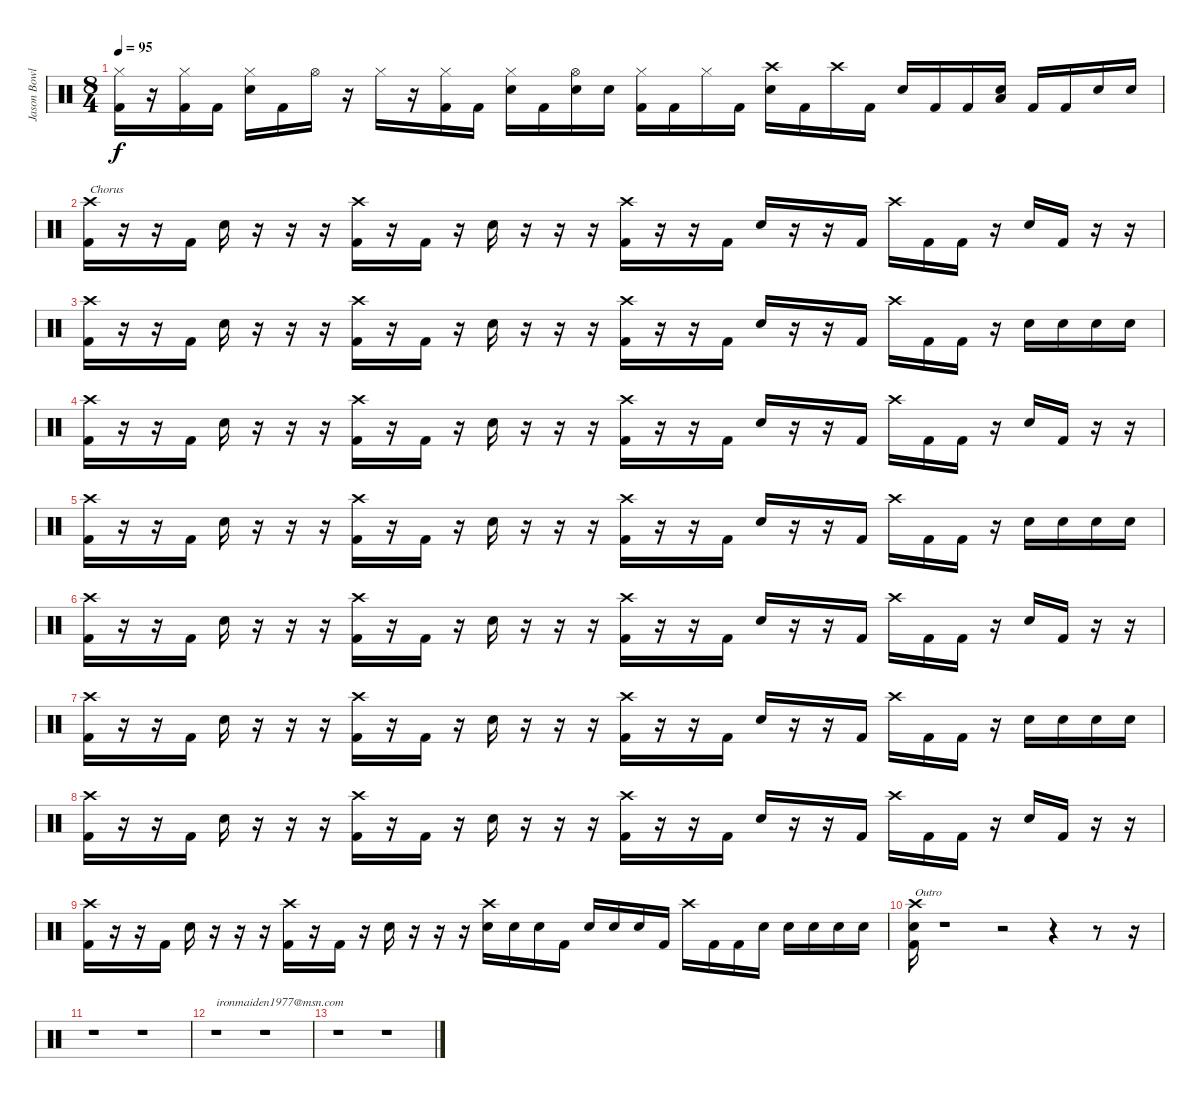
\track ("Jason Bowld" "Jason Bowl") {instrument percussion}
\staff {score}
\articulation defaults
\ts (8 4)
\tempo 95
\clef neutral
\ks c
("Hi-Hat (closed)" "Kick (hit) 2").16{dy f} r.16 ("Hi-Hat (closed)" "Kick (hit) 2").16 "Kick (hit) 2".16 ("Hi-Hat (closed)" "Snare (hit) 2").16 "Kick (hit) 2".16 "Hi-Hat (open)".16 r.16 "Hi-Hat (closed)".16 r.16 ("Hi-Hat (closed)" "Kick (hit) 2").16 "Kick (hit) 2".16 ("Hi-Hat (closed)" "Snare (hit) 2").16 "Kick (hit) 2".16 ("Hi-Hat (open)" "Snare (hit) 2").16 "Snare (hit) 2".16 ("Hi-Hat (closed)" "Kick (hit) 2").16 "Kick (hit) 2".16 "Hi-Hat (closed)".16 "Kick (hit) 2".16 ("Crash high (hit)" "Snare (hit) 2").16 "Kick (hit) 2".16 "Crash high (hit)".16 "Kick (hit) 2".16 "Snare (hit) 2".16 "Kick (hit) 2".16 "Kick (hit) 2".16 ("Low Tom (hit)" "Snare (hit) 2").16 "Kick (hit) 2".16 "Kick (hit) 2".16 "Snare (hit) 2".16 "Snare (hit) 2".16 |
("Kick (hit) 2" "Crash high (hit)").16{txt "Chorus"} r.16 r.16 "Kick (hit) 2".16 "Snare (hit) 2".16 r.16 r.16 r.16 ("Kick (hit) 2" "Crash high (hit)").16 r.16 "Kick (hit) 2".16 r.16 "Snare (hit) 2".16 r.16 r.16 r.16 ("Kick (hit) 2" "Crash high (hit)").16 r.16 r.16 "Kick (hit) 2".16 "Snare (hit) 2".16 r.16 r.16 "Kick (hit) 2".16 "Crash high (hit)".16 "Kick (hit) 2".16 "Kick (hit) 2".16 r.16 "Snare (hit) 2".16 "Kick (hit) 2".16 r.16 r.16 |
("Kick (hit) 2" "Crash high (hit)").16 r.16 r.16 "Kick (hit) 2".16 "Snare (hit) 2".16 r.16 r.16 r.16 ("Kick (hit) 2" "Crash high (hit)").16 r.16 "Kick (hit) 2".16 r.16 "Snare (hit) 2".16 r.16 r.16 r.16 ("Kick (hit) 2" "Crash high (hit)").16 r.16 r.16 "Kick (hit) 2".16 "Snare (hit) 2".16 r.16 r.16 "Kick (hit) 2".16 "Crash high (hit)".16 "Kick (hit) 2".16 "Kick (hit) 2".16 r.16 "Snare (hit) 2".16 "Snare (hit) 2".16 "Snare (hit) 2".16 "Snare (hit) 2".16 |
("Kick (hit) 2" "Crash high (hit)").16 r.16 r.16 "Kick (hit) 2".16 "Snare (hit) 2".16 r.16 r.16 r.16 ("Kick (hit) 2" "Crash high (hit)").16 r.16 "Kick (hit) 2".16 r.16 "Snare (hit) 2".16 r.16 r.16 r.16 ("Kick (hit) 2" "Crash high (hit)").16 r.16 r.16 "Kick (hit) 2".16 "Snare (hit) 2".16 r.16 r.16 "Kick (hit) 2".16 "Crash high (hit)".16 "Kick (hit) 2".16 "Kick (hit) 2".16 r.16 "Snare (hit) 2".16 "Kick (hit) 2".16 r.16 r.16 |
("Kick (hit) 2" "Crash high (hit)").16 r.16 r.16 "Kick (hit) 2".16 "Snare (hit) 2".16 r.16 r.16 r.16 ("Kick (hit) 2" "Crash high (hit)").16 r.16 "Kick (hit) 2".16 r.16 "Snare (hit) 2".16 r.16 r.16 r.16 ("Kick (hit) 2" "Crash high (hit)").16 r.16 r.16 "Kick (hit) 2".16 "Snare (hit) 2".16 r.16 r.16 "Kick (hit) 2".16 "Crash high (hit)".16 "Kick (hit) 2".16 "Kick (hit) 2".16 r.16 "Snare (hit) 2".16 "Snare (hit) 2".16 "Snare (hit) 2".16 "Snare (hit) 2".16 |
("Kick (hit) 2" "Crash high (hit)").16 r.16 r.16 "Kick (hit) 2".16 "Snare (hit) 2".16 r.16 r.16 r.16 ("Kick (hit) 2" "Crash high (hit)").16 r.16 "Kick (hit) 2".16 r.16 "Snare (hit) 2".16 r.16 r.16 r.16 ("Kick (hit) 2" "Crash high (hit)").16 r.16 r.16 "Kick (hit) 2".16 "Snare (hit) 2".16 r.16 r.16 "Kick (hit) 2".16 "Crash high (hit)".16 "Kick (hit) 2".16 "Kick (hit) 2".16 r.16 "Snare (hit) 2".16 "Kick (hit) 2".16 r.16 r.16 |
("Kick (hit) 2" "Crash high (hit)").16 r.16 r.16 "Kick (hit) 2".16 "Snare (hit) 2".16 r.16 r.16 r.16 ("Kick (hit) 2" "Crash high (hit)").16 r.16 "Kick (hit) 2".16 r.16 "Snare (hit) 2".16 r.16 r.16 r.16 ("Kick (hit) 2" "Crash high (hit)").16 r.16 r.16 "Kick (hit) 2".16 "Snare (hit) 2".16 r.16 r.16 "Kick (hit) 2".16 "Crash high (hit)".16 "Kick (hit) 2".16 "Kick (hit) 2".16 r.16 "Snare (hit) 2".16 "Snare (hit) 2".16 "Snare (hit) 2".16 "Snare (hit) 2".16 |
("Kick (hit) 2" "Crash high (hit)").16 r.16 r.16 "Kick (hit) 2".16 "Snare (hit) 2".16 r.16 r.16 r.16 ("Kick (hit) 2" "Crash high (hit)").16 r.16 "Kick (hit) 2".16 r.16 "Snare (hit) 2".16 r.16 r.16 r.16 ("Kick (hit) 2" "Crash high (hit)").16 r.16 r.16 "Kick (hit) 2".16 "Snare (hit) 2".16 r.16 r.16 "Kick (hit) 2".16 "Crash high (hit)".16 "Kick (hit) 2".16 "Kick (hit) 2".16 r.16 "Snare (hit) 2".16 "Kick (hit) 2".16 r.16 r.16 |
("Kick (hit) 2" "Crash high (hit)").16 r.16 r.16 "Kick (hit) 2".16 "Snare (hit) 2".16 r.16 r.16 r.16 ("Kick (hit) 2" "Crash high (hit)").16 r.16 "Kick (hit) 2".16 r.16 "Snare (hit) 2".16 r.16 r.16 r.16 ("Snare (hit) 2" "Crash high (hit)").16 "Snare (hit) 2".16 "Snare (hit) 2".16 "Kick (hit) 2".16 "Snare (hit) 2".16 "Snare (hit) 2".16 "Snare (hit) 2".16 "Kick (hit) 2".16 "Crash high (hit)".16 "Kick (hit) 2".16 "Kick (hit) 2".16 "Snare (hit) 2".16 "Snare (hit) 2".16 "Snare (hit) 2".16 "Snare (hit) 2".16 "Snare (hit) 2".16 |
("Snare (hit) 2" "Kick (hit) 2" "Crash high (hit)").16{txt "Outro"} r.1 r.2 r.4 r.8 r.16 |
r.1 r.1 |
r.1{txt "ironmaiden1977@msn.com"} r.1 |
r.1 r.1
